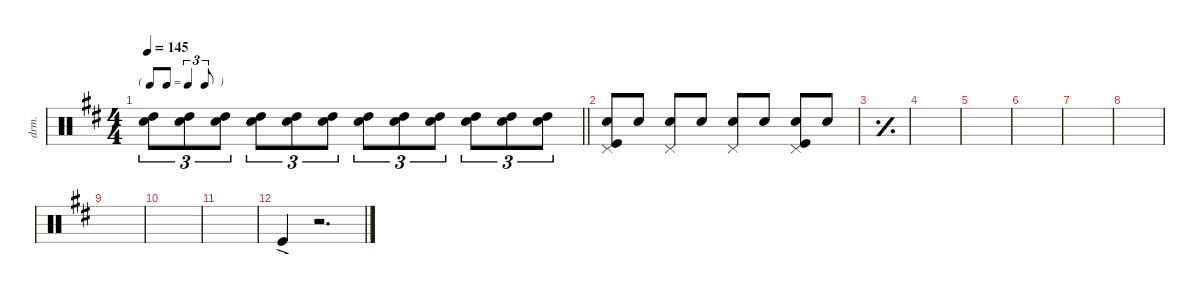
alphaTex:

\defaultSystemsLayout 4
\hideDynamics
\bracketExtendMode nobrackets
\otherSystemsTrackNameOrientation horizontal
\track ("Drumkit" "drm.") {instrument percussion}
\staff {score}
\articulation defaults
\ts (4 4)
\tf triplet8th
\tempo 145
\clef neutral
\barLineRight lightlight
\ks d
("Snare (hit) 2" "High Tom (hit)").8{tu (3 2) dy pp} ("Snare (hit) 2" "High Tom (hit)").8{tu (3 2)} ("Snare (hit) 2" "High Tom (hit)").8{tu (3 2)} ("Snare (hit) 2" "High Tom (hit)").8{tu (3 2) dy p} ("Snare (hit) 2" "High Tom (hit)").8{tu (3 2)} ("Snare (hit) 2" "High Tom (hit)").8{tu (3 2) dy mp} ("Snare (hit) 2" "High Tom (hit)").8{tu (3 2)} ("Snare (hit) 2" "High Tom (hit)").8{tu (3 2) dy mf} ("Snare (hit) 2" "High Tom (hit)").8{tu (3 2) dy f} ("Snare (hit) 2" "High Tom (hit)").8{tu (3 2) dy ff} ("Snare (hit) 2" "High Tom (hit)").8{tu (3 2)} ("Snare (hit) 2" "High Tom (hit)").8{tu (3 2)} |
("Snare (hit) 2" "Pedal Hi-Hat (hit)" "Kick (hit)").8{dy pp} "Snare (hit) 2".8 ("Snare (hit) 2" "Pedal Hi-Hat (hit)").8{dy f} "Snare (hit) 2".8{dy pp} ("Snare (hit) 2" "Pedal Hi-Hat (hit)").8 "Snare (hit) 2".8 ("Snare (hit) 2" "Pedal Hi-Hat (hit)" "Kick (hit)").8{dy f} "Snare (hit) 2".8{dy pp} |
\simile simple
|
|
|
|
|
|
|
|
|
\simile none "Kick (hit)"{ac}.4{dy ff}
r.2{d}
